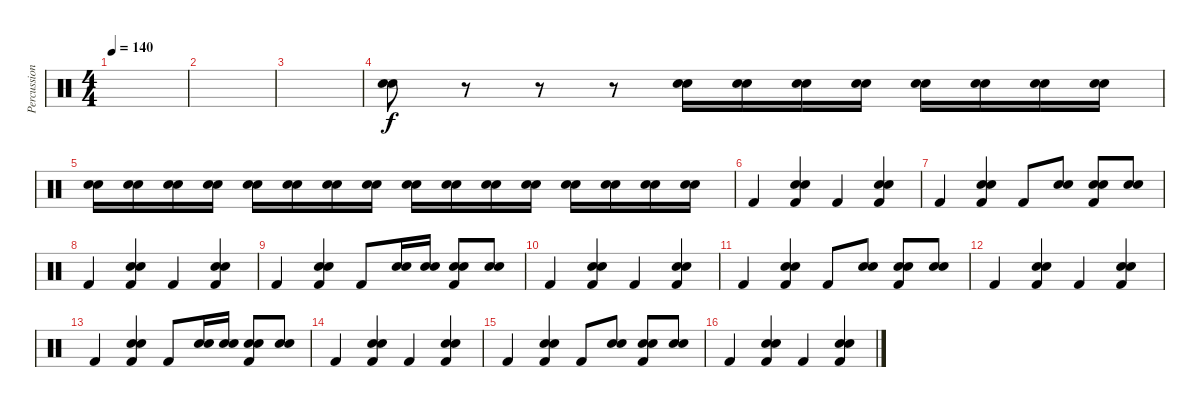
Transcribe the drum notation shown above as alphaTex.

\track ("Percussion" "Percussion") {instrument percussion}
\staff {score}
\articulation defaults
\ts (4 4)
\tempo 140
\clef neutral
\ks c
|
|
|
("Snare (hit) 2" "Hand Clap (hit)").8 r.8 r.8 r.8{volume 5} ("Snare (hit) 2" "Hand Clap (hit)").16{volume 16} ("Snare (hit) 2" "Hand Clap (hit)").16 ("Snare (hit) 2" "Hand Clap (hit)").16 ("Snare (hit) 2" "Hand Clap (hit)").16 ("Snare (hit) 2" "Hand Clap (hit)").16 ("Snare (hit) 2" "Hand Clap (hit)").16 ("Snare (hit) 2" "Hand Clap (hit)").16 ("Snare (hit) 2" "Hand Clap (hit)").16 |
("Snare (hit) 2" "Hand Clap (hit)").16 ("Snare (hit) 2" "Hand Clap (hit)").16 ("Snare (hit) 2" "Hand Clap (hit)").16 ("Snare (hit) 2" "Hand Clap (hit)").16 ("Snare (hit) 2" "Hand Clap (hit)").16 ("Snare (hit) 2" "Hand Clap (hit)").16 ("Snare (hit) 2" "Hand Clap (hit)").16 ("Snare (hit) 2" "Hand Clap (hit)").16 ("Snare (hit) 2" "Hand Clap (hit)").16 ("Snare (hit) 2" "Hand Clap (hit)").16 ("Snare (hit) 2" "Hand Clap (hit)").16 ("Snare (hit) 2" "Hand Clap (hit)").16 ("Snare (hit) 2" "Hand Clap (hit)").16 ("Snare (hit) 2" "Hand Clap (hit)").16 ("Snare (hit) 2" "Hand Clap (hit)").16 ("Snare (hit) 2" "Hand Clap (hit)").16 |
"Kick (hit) 2".4 ("Snare (hit) 2" "Hand Clap (hit)" "Kick (hit) 2").4 "Kick (hit) 2".4 ("Snare (hit) 2" "Hand Clap (hit)" "Kick (hit) 2").4 |
"Kick (hit) 2".4 ("Snare (hit) 2" "Hand Clap (hit)" "Kick (hit) 2").4 "Kick (hit) 2".8 ("Snare (hit) 2" "Hand Clap (hit)").8 ("Snare (hit) 2" "Hand Clap (hit)" "Kick (hit) 2").8 ("Snare (hit) 2" "Hand Clap (hit)").8 |
"Kick (hit) 2".4 ("Snare (hit) 2" "Hand Clap (hit)" "Kick (hit) 2").4 "Kick (hit) 2".4 ("Snare (hit) 2" "Hand Clap (hit)" "Kick (hit) 2").4 |
"Kick (hit) 2".4 ("Snare (hit) 2" "Hand Clap (hit)" "Kick (hit) 2").4 "Kick (hit) 2".8 ("Snare (hit) 2" "Hand Clap (hit)").16 ("Snare (hit) 2" "Hand Clap (hit)").16 ("Snare (hit) 2" "Hand Clap (hit)" "Kick (hit) 2").8 ("Snare (hit) 2" "Hand Clap (hit)").8 |
"Kick (hit) 2".4 ("Snare (hit) 2" "Hand Clap (hit)" "Kick (hit) 2").4 "Kick (hit) 2".4 ("Snare (hit) 2" "Hand Clap (hit)" "Kick (hit) 2").4 |
"Kick (hit) 2".4 ("Snare (hit) 2" "Hand Clap (hit)" "Kick (hit) 2").4 "Kick (hit) 2".8 ("Snare (hit) 2" "Hand Clap (hit)").8 ("Snare (hit) 2" "Hand Clap (hit)" "Kick (hit) 2").8 ("Snare (hit) 2" "Hand Clap (hit)").8 |
"Kick (hit) 2".4 ("Snare (hit) 2" "Hand Clap (hit)" "Kick (hit) 2").4 "Kick (hit) 2".4 ("Snare (hit) 2" "Hand Clap (hit)" "Kick (hit) 2").4 |
"Kick (hit) 2".4 ("Snare (hit) 2" "Hand Clap (hit)" "Kick (hit) 2").4 "Kick (hit) 2".8 ("Snare (hit) 2" "Hand Clap (hit)").16 ("Snare (hit) 2" "Hand Clap (hit)").16 ("Snare (hit) 2" "Hand Clap (hit)" "Kick (hit) 2").8 ("Snare (hit) 2" "Hand Clap (hit)").8 |
"Kick (hit) 2".4 ("Snare (hit) 2" "Hand Clap (hit)" "Kick (hit) 2").4 "Kick (hit) 2".4 ("Snare (hit) 2" "Hand Clap (hit)" "Kick (hit) 2").4 |
"Kick (hit) 2".4 ("Snare (hit) 2" "Hand Clap (hit)" "Kick (hit) 2").4 "Kick (hit) 2".8 ("Snare (hit) 2" "Hand Clap (hit)").8 ("Snare (hit) 2" "Hand Clap (hit)" "Kick (hit) 2").8 ("Snare (hit) 2" "Hand Clap (hit)").8 |
"Kick (hit) 2".4 ("Snare (hit) 2" "Hand Clap (hit)" "Kick (hit) 2").4 "Kick (hit) 2".4 ("Snare (hit) 2" "Hand Clap (hit)" "Kick (hit) 2").4
